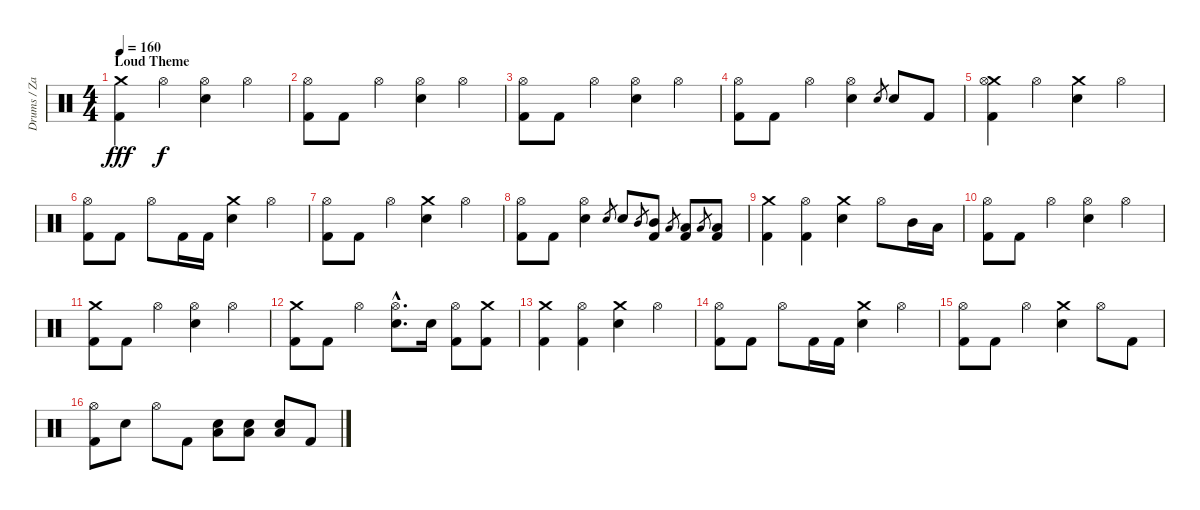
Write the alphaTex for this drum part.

\track ("Drums / Zac Hill" "Drums / Za") {instrument percussion}
\staff {score}
\articulation defaults
\ts (4 4)
\section ("" "Loud Theme")
\tempo 160
\clef neutral
\ks c
("Crash medium (hit)" "Kick (hit) 2").4{dy fff} "Hi-Hat (open)".4{dy f} ("Hi-Hat (open)" "Electric Snare (hit)").4 "Hi-Hat (open)".4 |
("Hi-Hat (open)" "Kick (hit) 2").8 "Kick (hit) 2".8 "Hi-Hat (open)".4 ("Hi-Hat (open)" "Electric Snare (hit)").4 "Hi-Hat (open)".4 |
("Hi-Hat (open)" "Kick (hit) 2").8 "Kick (hit) 2".8 "Hi-Hat (open)".4 ("Hi-Hat (open)" "Electric Snare (hit)").4 "Hi-Hat (open)".4 |
("Hi-Hat (open)" "Kick (hit) 2").8 "Kick (hit) 2".8 "Hi-Hat (open)".4 ("Hi-Hat (open)" "Electric Snare (hit)").4 "Electric Snare (hit)".8{gr} "Electric Snare (hit)".8 "Kick (hit) 2".8 |
("Crash medium (hit)" "Hi-Hat (open)" "Kick (hit) 2").4 "Hi-Hat (open)".4 ("Crash medium (hit)" "Electric Snare (hit)").4 "Hi-Hat (open)".4 |
("Hi-Hat (open)" "Kick (hit) 2").8 "Kick (hit) 2".8 "Hi-Hat (open)".8 "Kick (hit) 2".16 "Kick (hit) 2".16 ("Crash medium (hit)" "Electric Snare (hit)").4 "Hi-Hat (open)".4 |
("Hi-Hat (open)" "Kick (hit) 2").8 "Kick (hit) 2".8 "Hi-Hat (open)".4 ("Crash medium (hit)" "Electric Snare (hit)").4 "Hi-Hat (open)".4 |
("Hi-Hat (open)" "Kick (hit) 2").8 "Kick (hit) 2".8 ("Hi-Hat (open)" "Electric Snare (hit)").4 "Electric Snare (hit)".8{gr} "Electric Snare (hit)".8 "Mid Tom (hit)".8{gr} ("Mid Tom (hit)" "Kick (hit) 2").8 "Low Tom (hit)".8{gr} ("Low Tom (hit)" "Kick (hit) 2").8 "Low Tom (hit)".8{gr} ("Low Tom (hit)" "Kick (hit) 2").8 |
("Crash medium (hit)" "Kick (hit) 2").4 ("Hi-Hat (open)" "Kick (hit) 2").4 ("Crash medium (hit)" "Electric Snare (hit)").4 "Hi-Hat (open)".8 "Mid Tom (hit)".16 "Low Tom (hit)".16 |
("Hi-Hat (open)" "Kick (hit) 2").8 "Kick (hit) 2".8 "Hi-Hat (open)".4 ("Hi-Hat (open)" "Electric Snare (hit)").4 "Hi-Hat (open)".4 |
("Crash medium (hit)" "Kick (hit) 2").8 "Kick (hit) 2".8 "Hi-Hat (open)".4 ("Hi-Hat (open)" "Electric Snare (hit)").4 "Hi-Hat (open)".4 |
("Crash medium (hit)" "Kick (hit) 2").8 "Kick (hit) 2".8 "Hi-Hat (open)".4 ("Hi-Hat (open)"{hac} "Electric Snare (hit)"{hac}).8{d} "Electric Snare (hit)".16 ("Hi-Hat (open)" "Kick (hit) 2").8 ("Crash medium (hit)" "Kick (hit) 2").8 |
("Crash medium (hit)" "Kick (hit) 2").4 ("Hi-Hat (open)" "Kick (hit) 2").4 ("Crash medium (hit)" "Electric Snare (hit)").4 "Hi-Hat (open)".4 |
("Hi-Hat (open)" "Kick (hit) 2").8 "Kick (hit) 2".8 "Hi-Hat (open)".8 "Kick (hit) 2".16 "Kick (hit) 2".16 ("Crash medium (hit)" "Electric Snare (hit)").4 "Hi-Hat (open)".4 |
("Hi-Hat (open)" "Kick (hit) 2").8 "Kick (hit) 2".8 "Hi-Hat (open)".4 ("Crash medium (hit)" "Electric Snare (hit)").4 "Hi-Hat (open)".8 "Kick (hit) 2".8 |
("Hi-Hat (open)" "Kick (hit) 2").8 "Electric Snare (hit)".8 "Hi-Hat (open)".8 "Kick (hit) 2".8 ("Low Tom (hit)" "Electric Snare (hit)").8 ("Low Tom (hit)" "Electric Snare (hit)").8 ("Low Tom (hit)" "Electric Snare (hit)").8 "Kick (hit) 2".8
